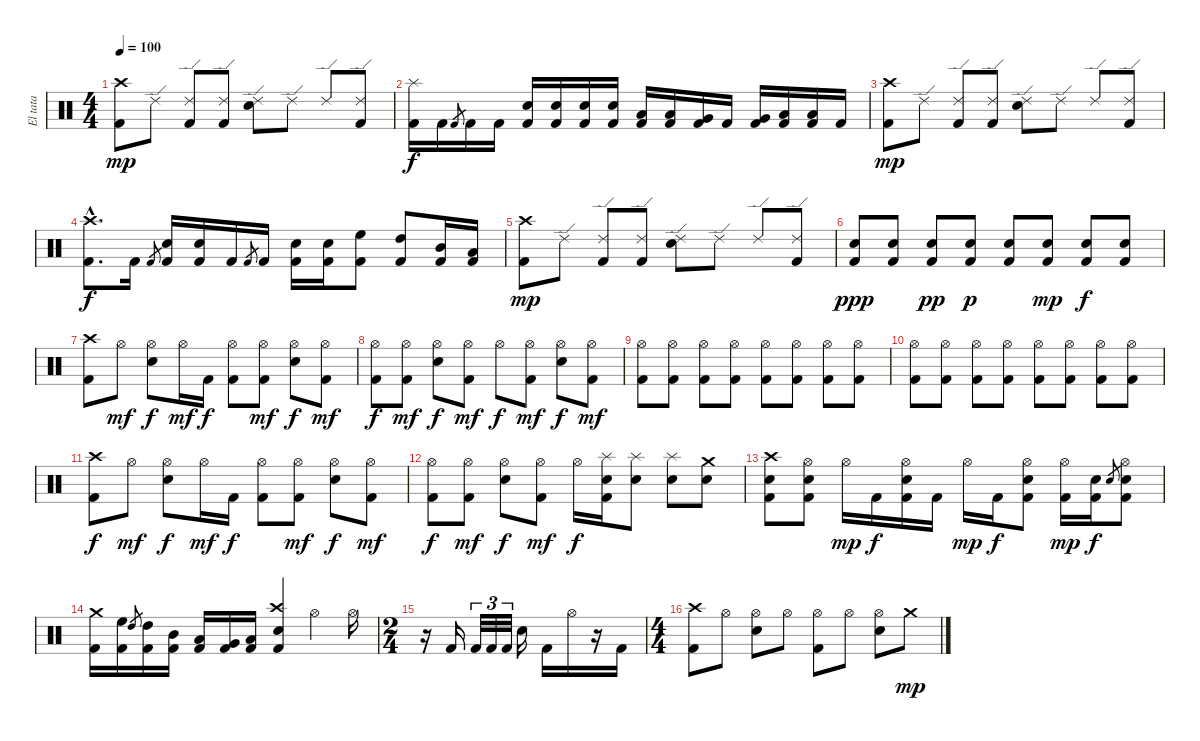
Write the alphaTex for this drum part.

\track ("El tata" "El tata") {instrument percussion}
\staff {score}
\articulation defaults
\ts (4 4)
\tempo 100
\clef neutral
\ks c
("Kick (hit) 2" "Crash high (hit)").8{dy mp} "Ride (edge) 2".8 ("Kick (hit) 2" "Ride (edge) 2").8 ("Kick (hit) 2" "Ride (edge) 2").8 ("Electric Snare (hit)" "Ride (edge) 2").8 "Ride (edge) 2".8 "Ride (edge) 2".8 ("Kick (hit) 2" "Ride (edge) 2").8 |
("Kick (hit) 2" "Splash (hit)").16{dy f} "Kick (hit) 2".16 "Kick (hit) 2".8{gr} "Kick (hit) 2".16 "Kick (hit) 2".16 ("Kick (hit) 2" "Electric Snare (hit)").16 ("Kick (hit) 2" "Electric Snare (hit)").16 ("Kick (hit) 2" "Electric Snare (hit)").16 ("Kick (hit) 2" "Electric Snare (hit)").16 ("Kick (hit) 2" "Low Tom (hit)").16 ("Kick (hit) 2" "Low Tom (hit)").16 ("Kick (hit) 2" "Very Low Tom (hit)").16 "Kick (hit) 2".16 ("Kick (hit) 2" "Very Low Tom (hit)").16 ("Kick (hit) 2" "Low Floor Tom (hit)").16 ("Kick (hit) 2" "Low Floor Tom (hit)").16 "Kick (hit) 2".16 |
("Kick (hit) 2" "Crash high (hit)").8{dy mp} "Ride (edge) 2".8 ("Kick (hit) 2" "Ride (edge) 2").8 ("Kick (hit) 2" "Ride (edge) 2").8 ("Electric Snare (hit)" "Ride (edge) 2").8 "Ride (edge) 2".8 "Ride (edge) 2".8 ("Kick (hit) 2" "Ride (edge) 2").8 |
("Kick (hit) 2"{hac} "Crash high (hit)"{hac}).8{d dy f} "Kick (hit) 2".16 "Kick (hit) 2".8{gr} ("Kick (hit) 2" "Electric Snare (hit)").16 ("Kick (hit) 2" "Electric Snare (hit)").16 "Kick (hit) 2".16 "Kick (hit) 2".8{gr} "Kick (hit) 2".16 ("Kick (hit) 2" "Electric Snare (hit)").16 ("Kick (hit) 2" "Electric Snare (hit)").16 ("Kick (hit) 2" "High Floor Tom (hit)").8 ("Kick (hit) 2" "High Tom (hit)").8 ("Kick (hit) 2" "Mid Tom (hit)").16 ("Kick (hit) 2" "Low Tom (hit)").16 |
("Kick (hit) 2" "Crash high (hit)").8{dy mp} "Ride (edge) 2".8 ("Kick (hit) 2" "Ride (edge) 2").8 ("Kick (hit) 2" "Ride (edge) 2").8 ("Electric Snare (hit)" "Ride (edge) 2").8 "Ride (edge) 2".8 "Ride (edge) 2".8 ("Kick (hit) 2" "Ride (edge) 2").8 |
("Kick (hit) 2" "Electric Snare (hit)").8{dy ppp} ("Kick (hit) 2" "Electric Snare (hit)").8 ("Kick (hit) 2" "Electric Snare (hit)").8{dy pp} ("Kick (hit) 2" "Electric Snare (hit)").8{dy p} ("Kick (hit) 2" "Electric Snare (hit)").8 ("Kick (hit) 2" "Electric Snare (hit)").8{dy mp} ("Kick (hit) 2" "Electric Snare (hit)").8{dy f} ("Kick (hit) 2" "Electric Snare (hit)").8 |
("Kick (hit) 2" "Crash high (hit)").8 "Hi-Hat (open)".8{dy mf} ("Electric Snare (hit)" "Hi-Hat (open)").8{dy f} "Hi-Hat (open)".16{dy mf} "Kick (hit) 2".16{dy f} ("Kick (hit) 2" "Hi-Hat (open)").8 ("Kick (hit) 2" "Hi-Hat (open)").8{dy mf} ("Electric Snare (hit)" "Hi-Hat (open)").8{dy f} ("Kick (hit) 2" "Hi-Hat (open)").8{dy mf} |
("Kick (hit) 2" "Hi-Hat (open)").8{dy f} ("Kick (hit) 2" "Hi-Hat (open)").8{dy mf} ("Electric Snare (hit)" "Hi-Hat (open)").8{dy f} ("Kick (hit) 2" "Hi-Hat (open)").8{dy mf} "Hi-Hat (open)".8{dy f} ("Kick (hit) 2" "Hi-Hat (open)").8{dy mf} ("Electric Snare (hit)" "Hi-Hat (open)").8{dy f} ("Kick (hit) 2" "Hi-Hat (open)").8{dy mf} |
("Kick (hit) 2" "Hi-Hat (open)").8 ("Kick (hit) 2" "Hi-Hat (open)").8 ("Kick (hit) 2" "Hi-Hat (open)").8 ("Kick (hit) 2" "Hi-Hat (open)").8 ("Kick (hit) 2" "Hi-Hat (open)").8 ("Kick (hit) 2" "Hi-Hat (open)").8 ("Kick (hit) 2" "Hi-Hat (open)").8 ("Kick (hit) 2" "Hi-Hat (open)").8 |
("Kick (hit) 2" "Hi-Hat (open)").8 ("Kick (hit) 2" "Hi-Hat (open)").8 ("Kick (hit) 2" "Hi-Hat (open)").8 ("Kick (hit) 2" "Hi-Hat (open)").8 ("Kick (hit) 2" "Hi-Hat (open)").8 ("Kick (hit) 2" "Hi-Hat (open)").8 ("Kick (hit) 2" "Hi-Hat (open)").8 ("Kick (hit) 2" "Hi-Hat (open)").8 |
("Kick (hit) 2" "Crash high (hit)").8{dy f} "Hi-Hat (open)".8{dy mf} ("Electric Snare (hit)" "Hi-Hat (open)").8{dy f} "Hi-Hat (open)".16{dy mf} "Kick (hit) 2".16{dy f} ("Kick (hit) 2" "Hi-Hat (open)").8 ("Kick (hit) 2" "Hi-Hat (open)").8{dy mf} ("Electric Snare (hit)" "Hi-Hat (open)").8{dy f} ("Kick (hit) 2" "Hi-Hat (open)").8{dy mf} |
("Kick (hit) 2" "Hi-Hat (open)").8{dy f} ("Kick (hit) 2" "Hi-Hat (open)").8{dy mf} ("Electric Snare (hit)" "Hi-Hat (open)").8{dy f} ("Kick (hit) 2" "Hi-Hat (open)").8{dy mf} "Hi-Hat (open)".16{dy f} ("Kick (hit) 2" "Electric Snare (hit)" "Splash (hit)").16 ("Electric Snare (hit)" "Splash (hit)").8 ("Electric Snare (hit)" "Splash (hit)").8 ("Electric Snare (hit)" "Crash medium (hit)").8 |
("Kick (hit) 2" "Electric Snare (hit)" "Crash high (hit)").8 ("Kick (hit) 2" "Electric Snare (hit)" "Hi-Hat (open)").8 "Hi-Hat (open)".16{dy mp} "Kick (hit) 2".16{dy f} ("Kick (hit) 2" "Electric Snare (hit)" "Hi-Hat (open)").16 "Kick (hit) 2".16 "Hi-Hat (open)".16{dy mp} "Kick (hit) 2".16{dy f} ("Kick (hit) 2" "Electric Snare (hit)" "Hi-Hat (open)").8 ("Kick (hit) 2" "Hi-Hat (open)").16{dy mp} ("Kick (hit) 2" "Electric Snare (hit)").16{dy f} "Electric Snare (hit)".8{gr} ("Kick (hit) 2" "Electric Snare (hit)" "Hi-Hat (open)").8 |
("Kick (hit) 2" "Crash medium (hit)").16 ("Kick (hit) 2" "High Floor Tom (hit)").16 "High Tom (hit)".8{gr} ("Kick (hit) 2" "High Tom (hit)").16 ("Kick (hit) 2" "Mid Tom (hit)").16 ("Kick (hit) 2" "Low Tom (hit)").16 ("Kick (hit) 2" "Very Low Tom (hit)").16 ("Kick (hit) 2" "Low Floor Tom (hit)").16 ("Kick (hit) 2" "Electric Snare (hit)" "Crash high (hit)").4 "Hi-Hat (open)".4 "Hi-Hat (open)".16 |
\ts (2 4)
r.16 "Kick (hit) 2".16 "Kick (hit) 2".32{tu (3 2)} "Kick (hit) 2".32{tu (3 2)} "Kick (hit) 2".32{tu (3 2)} "Electric Snare (hit)".16 "Kick (hit) 2".16 "Hi-Hat (open)".16 r.16 "Kick (hit) 2".16 |
\ts (4 4)
("Kick (hit) 2" "Crash high (hit)").8 "Hi-Hat (open)".8 ("Electric Snare (hit)" "Hi-Hat (open)").8 "Hi-Hat (open)".8 ("Kick (hit) 2" "Hi-Hat (open)").8 "Hi-Hat (open)".8 ("Electric Snare (hit)" "Hi-Hat (open)").8 "Crash medium (hit)".8{dy mp}
